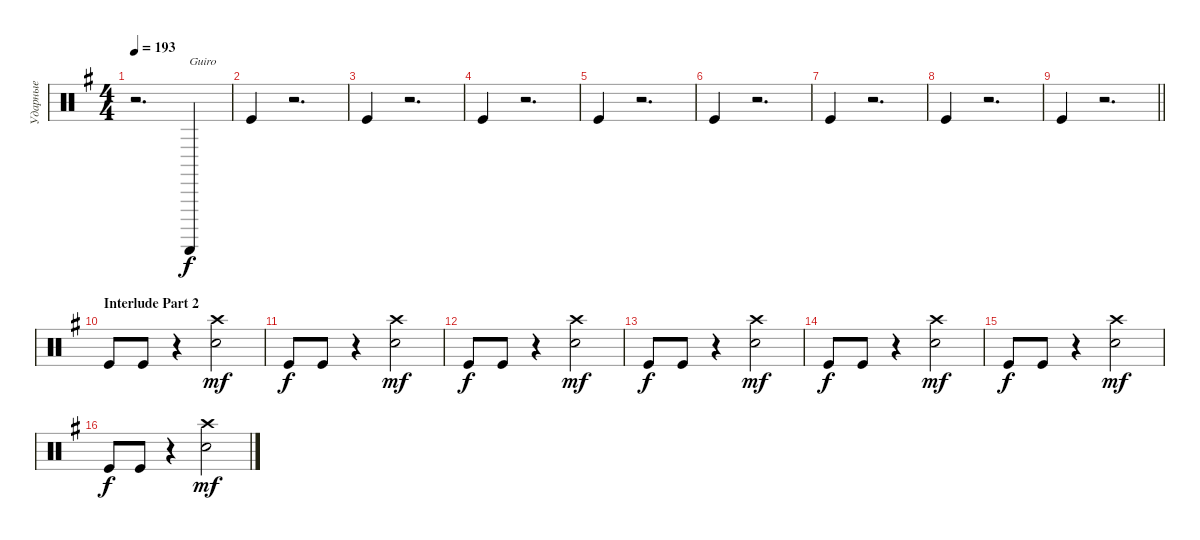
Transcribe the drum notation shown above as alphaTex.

\track ("Ударные" "Ударные") {instrument percussion}
\staff {score}
\articulation defaults
\ts (4 4)
\tempo 193
\clef neutral
\ks eminor
r.2{d dy mp} "Guiro (scrap-return)".4{txt "Guiro" dy f} |
"Kick (hit)".4 r.2{d} |
"Kick (hit)".4 r.2{d} |
"Kick (hit)".4 r.2{d} |
"Kick (hit)".4 r.2{d} |
"Kick (hit)".4 r.2{d} |
"Kick (hit)".4 r.2{d} |
"Kick (hit)".4 r.2{d} |
\barLineRight lightlight "Kick (hit)".4
r.2{d} |
\section ("" "Interlude Part 2")
"Kick (hit)".8 "Kick (hit)".8 r.4 ("Snare (hit) 2" "Crash high (hit)").2{dy mf} |
"Kick (hit)".8{dy f} "Kick (hit)".8 r.4 ("Snare (hit) 2" "Crash high (hit)").2{dy mf} |
"Kick (hit)".8{dy f} "Kick (hit)".8 r.4 ("Snare (hit) 2" "Crash high (hit)").2{dy mf} |
"Kick (hit)".8{dy f} "Kick (hit)".8 r.4 ("Snare (hit) 2" "Crash high (hit)").2{dy mf} |
"Kick (hit)".8{dy f} "Kick (hit)".8 r.4 ("Snare (hit) 2" "Crash high (hit)").2{dy mf} |
"Kick (hit)".8{dy f} "Kick (hit)".8 r.4 ("Snare (hit) 2" "Crash high (hit)").2{dy mf} |
"Kick (hit)".8{dy f} "Kick (hit)".8 r.4 ("Snare (hit) 2" "Crash high (hit)").2{dy mf}
